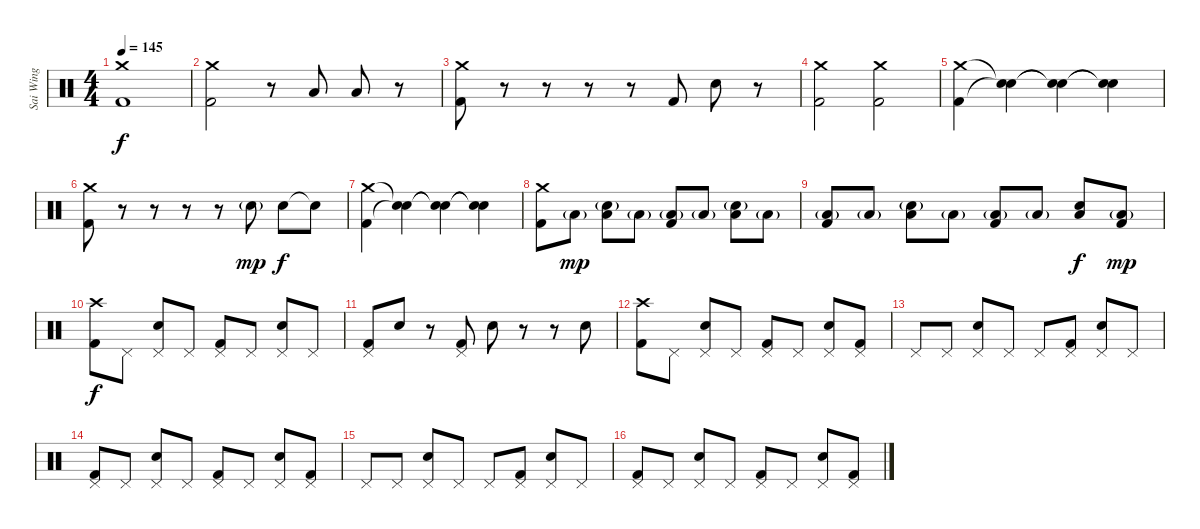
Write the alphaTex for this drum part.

\track ("Sai Wing" "Sai Wing") {instrument percussion}
\staff {score}
\articulation defaults
\ts (4 4)
\tempo 145
\clef neutral
\ks c
("Crash medium (hit)" "Kick (hit) 2").1{dy f} |
("Crash medium (hit)" "Kick (hit) 2").2 r.8 "Low Tom (hit)".8 "Low Tom (hit)".8 r.8 |
("Crash medium (hit)" "Kick (hit) 2").8 r.8 r.8 r.8 r.8 "Kick (hit) 2".8 "Electric Snare (hit)".8 r.8 |
("Crash medium (hit)" "Kick (hit) 2").2 ("Crash medium (hit)" "Kick (hit) 2").2 |
("Crash medium (hit)" "Kick (hit) 2").4 ("Snare (hit)"{t} "Snare (hit)"{t}).4 ("Snare (hit)"{t} "Snare (hit)"{t}).4 ("Snare (hit)"{t} "Snare (hit)"{t}).4 |
("Crash medium (hit)" "Kick (hit) 2").8 r.8 r.8 r.8 r.8 "Electric Snare (hit)"{g}.8{dy mp} "Electric Snare (hit)".8{dy f} "Snare (hit)"{t}.8 |
("Crash medium (hit)" "Kick (hit) 2").4 ("Snare (hit)"{t} "Snare (hit)"{t}).4 ("Snare (hit)"{t} "Snare (hit)"{t}).4 ("Snare (hit)"{t} "Snare (hit)"{t}).4 |
("Crash medium (hit)" "Kick (hit) 2").8 "Low Tom (hit)"{g}.8{dy mp} ("Low Tom (hit)" "Snare (hit) 2"{g}).8 "Low Tom (hit)"{g}.8 ("Low Tom (hit)"{g} "Kick (hit) 2").8 "Low Tom (hit)"{g}.8 ("Low Tom (hit)" "Snare (hit) 2"{g}).8 "Low Tom (hit)"{g}.8 |
("Low Tom (hit)"{g} "Kick (hit) 2").8 "Low Tom (hit)"{g}.8 ("Low Tom (hit)" "Snare (hit) 2"{g}).8 "Low Tom (hit)"{g}.8 ("Low Tom (hit)"{g} "Kick (hit) 2").8 "Low Tom (hit)"{g}.8 ("Low Tom (hit)" "Snare (hit) 2").8{dy f} ("Low Tom (hit)"{g} "Kick (hit) 2").8{dy mp} |
("Crash high (hit)" "Kick (hit) 2").8{dy f} "Pedal Hi-Hat (hit)".8 ("Pedal Hi-Hat (hit)" "Snare (hit) 2").8 "Pedal Hi-Hat (hit)".8 ("Pedal Hi-Hat (hit)" "Kick (hit) 2").8 "Pedal Hi-Hat (hit)".8 ("Pedal Hi-Hat (hit)" "Snare (hit) 2").8 "Pedal Hi-Hat (hit)".8 |
("Pedal Hi-Hat (hit)" "Kick (hit) 2").8 "Snare (hit) 2".8 r.8 ("Pedal Hi-Hat (hit)" "Kick (hit) 2").8 "Snare (hit) 2".8 r.8 r.8 "Snare (hit) 2".8 |
("Crash high (hit)" "Kick (hit) 2").8 "Pedal Hi-Hat (hit)".8 ("Pedal Hi-Hat (hit)" "Snare (hit) 2").8 "Pedal Hi-Hat (hit)".8 ("Pedal Hi-Hat (hit)" "Kick (hit) 2").8 "Pedal Hi-Hat (hit)".8 ("Pedal Hi-Hat (hit)" "Snare (hit) 2").8 ("Pedal Hi-Hat (hit)" "Kick (hit) 2").8 |
"Pedal Hi-Hat (hit)".8 "Pedal Hi-Hat (hit)".8 ("Pedal Hi-Hat (hit)" "Snare (hit) 2").8 "Pedal Hi-Hat (hit)".8 "Pedal Hi-Hat (hit)".8 ("Pedal Hi-Hat (hit)" "Kick (hit) 2").8 ("Pedal Hi-Hat (hit)" "Snare (hit) 2").8 "Pedal Hi-Hat (hit)".8 |
("Pedal Hi-Hat (hit)" "Kick (hit) 2").8 "Pedal Hi-Hat (hit)".8 ("Pedal Hi-Hat (hit)" "Snare (hit) 2").8 "Pedal Hi-Hat (hit)".8 ("Pedal Hi-Hat (hit)" "Kick (hit) 2").8 "Pedal Hi-Hat (hit)".8 ("Pedal Hi-Hat (hit)" "Snare (hit) 2").8 ("Pedal Hi-Hat (hit)" "Kick (hit) 2").8 |
"Pedal Hi-Hat (hit)".8 "Pedal Hi-Hat (hit)".8 ("Pedal Hi-Hat (hit)" "Snare (hit) 2").8 "Pedal Hi-Hat (hit)".8 "Pedal Hi-Hat (hit)".8 ("Pedal Hi-Hat (hit)" "Kick (hit) 2").8 ("Pedal Hi-Hat (hit)" "Snare (hit) 2").8 "Pedal Hi-Hat (hit)".8 |
("Pedal Hi-Hat (hit)" "Kick (hit) 2").8 "Pedal Hi-Hat (hit)".8 ("Pedal Hi-Hat (hit)" "Snare (hit) 2").8 "Pedal Hi-Hat (hit)".8 ("Pedal Hi-Hat (hit)" "Kick (hit) 2").8 "Pedal Hi-Hat (hit)".8 ("Pedal Hi-Hat (hit)" "Snare (hit) 2").8 ("Pedal Hi-Hat (hit)" "Kick (hit) 2").8
